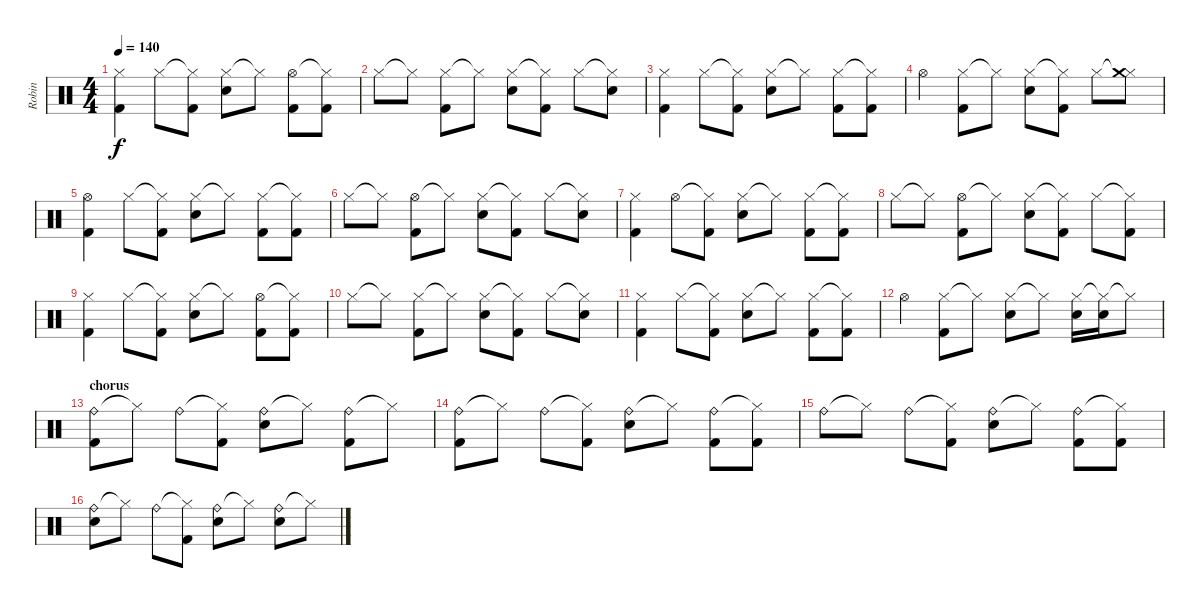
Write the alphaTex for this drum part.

\track ("Robin" "Robin") {instrument percussion}
\staff {score}
\articulation defaults
\ts (4 4)
\tempo 140
\clef neutral
\ks c
("Hi-Hat (closed)" "Kick (hit) 2").4{dy f} "Hi-Hat (closed)".8 ("Hi-Hat (closed)"{t} "Kick (hit) 2").8 ("Hi-Hat (closed)" "Snare (hit) 2").8 "Hi-Hat (closed)"{t}.8 ("Hi-Hat (open)" "Kick (hit) 2").8 ("Hi-Hat (closed)"{t} "Kick (hit) 2").8 |
"Hi-Hat (closed)".8 "Hi-Hat (closed)"{t}.8 ("Hi-Hat (closed)" "Kick (hit) 2").8 "Hi-Hat (closed)"{t}.8 ("Hi-Hat (closed)" "Snare (hit) 2").8 ("Hi-Hat (closed)"{t} "Kick (hit) 2").8 "Hi-Hat (closed)".8 ("Hi-Hat (closed)"{t} "Snare (hit) 2").8 |
("Hi-Hat (closed)" "Kick (hit) 2").4 "Hi-Hat (closed)".8 ("Hi-Hat (closed)"{t} "Kick (hit) 2").8 ("Hi-Hat (closed)" "Snare (hit) 2").8 "Hi-Hat (closed)"{t}.8 ("Hi-Hat (closed)" "Kick (hit) 2").8 ("Hi-Hat (closed)"{t} "Kick (hit) 2").8 |
"Hi-Hat (open)".4 ("Hi-Hat (closed)" "Kick (hit) 2").8 "Hi-Hat (closed)"{t}.8 ("Hi-Hat (closed)" "Snare (hit) 2").8 ("Hi-Hat (closed)"{t} "Kick (hit) 2").8 "Hi-Hat (closed)".8 ("Hi-Hat (closed)"{t} "Crash medium (hit)").8 |
("Hi-Hat (open)" "Kick (hit) 2").4 "Hi-Hat (closed)".8 ("Hi-Hat (closed)"{t} "Kick (hit) 2").8 ("Hi-Hat (closed)" "Snare (hit) 2").8 "Hi-Hat (closed)"{t}.8 ("Hi-Hat (closed)" "Kick (hit) 2").8 ("Hi-Hat (closed)"{t} "Kick (hit) 2").8 |
"Hi-Hat (closed)".8 "Hi-Hat (closed)"{t}.8 ("Hi-Hat (open)" "Kick (hit) 2").8 "Hi-Hat (closed)"{t}.8 ("Hi-Hat (closed)" "Snare (hit) 2").8 ("Hi-Hat (closed)"{t} "Kick (hit) 2").8 "Hi-Hat (closed)".8 ("Hi-Hat (closed)"{t} "Snare (hit) 2").8 |
("Hi-Hat (closed)" "Kick (hit) 2").4 "Hi-Hat (open)".8 ("Hi-Hat (closed)"{t} "Kick (hit) 2").8 ("Hi-Hat (closed)" "Snare (hit) 2").8 "Hi-Hat (closed)"{t}.8 ("Hi-Hat (closed)" "Kick (hit) 2").8 ("Hi-Hat (closed)"{t} "Kick (hit) 2").8 |
"Hi-Hat (closed)".8 "Hi-Hat (closed)"{t}.8 ("Hi-Hat (open)" "Kick (hit) 2").8 "Hi-Hat (closed)"{t}.8 ("Hi-Hat (closed)" "Snare (hit) 2").8 ("Hi-Hat (closed)"{t} "Kick (hit) 2").8 "Hi-Hat (closed)".8 ("Hi-Hat (closed)"{t} "Kick (hit) 2").8 |
("Hi-Hat (closed)" "Kick (hit) 2").4 "Hi-Hat (closed)".8 ("Hi-Hat (closed)"{t} "Kick (hit) 2").8 ("Hi-Hat (closed)" "Snare (hit) 2").8 "Hi-Hat (closed)"{t}.8 ("Hi-Hat (open)" "Kick (hit) 2").8 ("Hi-Hat (closed)"{t} "Kick (hit) 2").8 |
"Hi-Hat (closed)".8 "Hi-Hat (closed)"{t}.8 ("Hi-Hat (closed)" "Kick (hit) 2").8 "Hi-Hat (closed)"{t}.8 ("Hi-Hat (closed)" "Snare (hit) 2").8 ("Hi-Hat (closed)"{t} "Kick (hit) 2").8 "Hi-Hat (closed)".8 ("Hi-Hat (closed)"{t} "Snare (hit) 2").8 |
("Hi-Hat (closed)" "Kick (hit) 2").4 "Hi-Hat (closed)".8 ("Hi-Hat (closed)"{t} "Kick (hit) 2").8 ("Hi-Hat (closed)" "Snare (hit) 2").8 "Hi-Hat (closed)"{t}.8 ("Hi-Hat (closed)" "Kick (hit) 2").8 ("Hi-Hat (closed)"{t} "Kick (hit) 2").8 |
"Hi-Hat (open)".4 ("Hi-Hat (closed)" "Kick (hit) 2").8 "Hi-Hat (closed)"{t}.8 ("Hi-Hat (closed)" "Snare (hit) 2").8 "Hi-Hat (closed)"{t}.8 ("Hi-Hat (closed)" "Snare (hit) 2").16 ("Hi-Hat (closed)"{t} "Snare (hit) 2").16 "Hi-Hat (closed)"{t}.8 |
\section ("" "chorus")
("Ride (bell)" "Kick (hit) 2").8 "Hi-Hat (closed)"{t}.8 "Ride (bell)".8 ("Hi-Hat (closed)"{t} "Kick (hit) 2").8 ("Ride (bell)" "Snare (hit) 2").8 "Hi-Hat (closed)"{t}.8 ("Ride (bell)" "Kick (hit) 2").8 "Hi-Hat (closed)"{t}.8 |
("Ride (bell)" "Kick (hit) 2").8 "Hi-Hat (closed)"{t}.8 "Ride (bell)".8 ("Hi-Hat (closed)"{t} "Kick (hit) 2").8 ("Ride (bell)" "Snare (hit) 2").8 "Hi-Hat (closed)"{t}.8 ("Ride (bell)" "Kick (hit) 2").8 ("Hi-Hat (closed)"{t} "Kick (hit) 2").8 |
"Ride (bell)".8 "Hi-Hat (closed)"{t}.8 "Ride (bell)".8 ("Hi-Hat (closed)"{t} "Kick (hit) 2").8 ("Ride (bell)" "Snare (hit) 2").8 "Hi-Hat (closed)"{t}.8 ("Ride (bell)" "Kick (hit) 2").8 ("Hi-Hat (closed)"{t} "Kick (hit) 2").8 |
("Ride (bell)" "Snare (hit) 2").8 "Hi-Hat (closed)"{t}.8 "Ride (bell)".8 ("Hi-Hat (closed)"{t} "Kick (hit) 2").8 ("Ride (bell)" "Snare (hit) 2").8 "Hi-Hat (closed)"{t}.8 ("Ride (bell)" "Snare (hit) 2").8 "Hi-Hat (closed)"{t}.8
